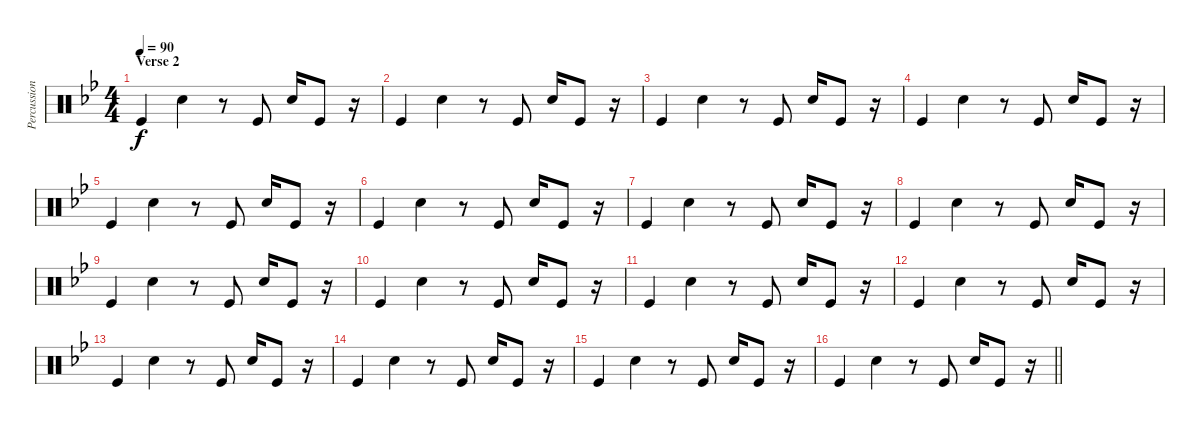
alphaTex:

\track ("Percussion" "Percussion") {instrument percussion}
\staff {score}
\articulation defaults
\ts (4 4)
\section ("" "Verse 2")
\tempo 90
\clef neutral
\ks bb "Kick (hit)".4{dy f} "Electric Snare (hit)".4
r.8 "Kick (hit)".8 "Electric Snare (hit)".16 "Kick (hit)".8 r.16 |
"Kick (hit)".4 "Electric Snare (hit)".4 r.8 "Kick (hit)".8 "Electric Snare (hit)".16 "Kick (hit)".8 r.16 |
"Kick (hit)".4 "Electric Snare (hit)".4 r.8 "Kick (hit)".8 "Electric Snare (hit)".16 "Kick (hit)".8 r.16 |
"Kick (hit)".4 "Electric Snare (hit)".4 r.8 "Kick (hit)".8 "Electric Snare (hit)".16 "Kick (hit)".8 r.16 |
"Kick (hit)".4 "Electric Snare (hit)".4 r.8 "Kick (hit)".8 "Electric Snare (hit)".16 "Kick (hit)".8 r.16 |
"Kick (hit)".4 "Electric Snare (hit)".4 r.8 "Kick (hit)".8 "Electric Snare (hit)".16 "Kick (hit)".8 r.16 |
"Kick (hit)".4 "Electric Snare (hit)".4 r.8 "Kick (hit)".8 "Electric Snare (hit)".16 "Kick (hit)".8 r.16 |
"Kick (hit)".4 "Electric Snare (hit)".4 r.8 "Kick (hit)".8 "Electric Snare (hit)".16 "Kick (hit)".8 r.16 |
"Kick (hit)".4 "Electric Snare (hit)".4 r.8 "Kick (hit)".8 "Electric Snare (hit)".16 "Kick (hit)".8 r.16 |
"Kick (hit)".4 "Electric Snare (hit)".4 r.8 "Kick (hit)".8 "Electric Snare (hit)".16 "Kick (hit)".8 r.16 |
"Kick (hit)".4 "Electric Snare (hit)".4 r.8 "Kick (hit)".8 "Electric Snare (hit)".16 "Kick (hit)".8 r.16 |
"Kick (hit)".4 "Electric Snare (hit)".4 r.8 "Kick (hit)".8 "Electric Snare (hit)".16 "Kick (hit)".8 r.16 |
"Kick (hit)".4 "Electric Snare (hit)".4 r.8 "Kick (hit)".8 "Electric Snare (hit)".16 "Kick (hit)".8 r.16 |
"Kick (hit)".4 "Electric Snare (hit)".4 r.8 "Kick (hit)".8 "Electric Snare (hit)".16 "Kick (hit)".8 r.16 |
"Kick (hit)".4 "Electric Snare (hit)".4 r.8 "Kick (hit)".8 "Electric Snare (hit)".16 "Kick (hit)".8 r.16 |
\barLineRight lightlight "Kick (hit)".4 "Electric Snare (hit)".4
r.8 "Kick (hit)".8 "Electric Snare (hit)".16 "Kick (hit)".8 r.16
